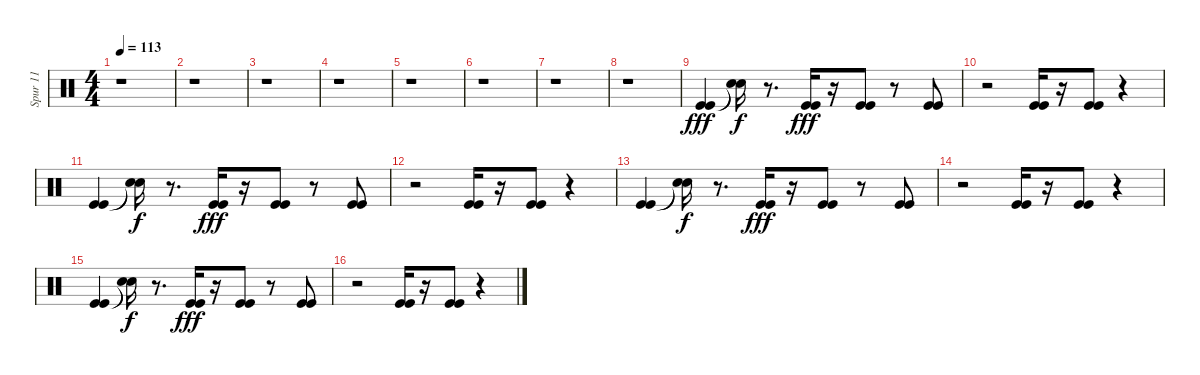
\track ("Spur 11" "Spur 11") {instrument percussion}
\staff {score}
\articulation defaults
\ts (4 4)
\tempo 113
\clef neutral
\ks c
r.1{dy fff} |
r.1 |
r.1 |
r.1 |
r.1 |
r.1 |
r.1 |
r.1 |
("Kick (hit)" "Kick (hit)").4{volume 12} ("Snare (hit)"{t} "Snare (hit)"{t}).16{dy f} r.8{d} ("Kick (hit)" "Kick (hit)").16{dy fff volume 12} r.16 ("Kick (hit)" "Kick (hit)").8 r.8 ("Kick (hit)" "Kick (hit)").8{volume 12} |
r.2 ("Kick (hit)" "Kick (hit)").16 r.16 ("Kick (hit)" "Kick (hit)").8 r.4 |
("Kick (hit)" "Kick (hit)").4 ("Snare (hit)"{t} "Snare (hit)"{t}).16{dy f} r.8{d} ("Kick (hit)" "Kick (hit)").16{dy fff} r.16 ("Kick (hit)" "Kick (hit)").8 r.8 ("Kick (hit)" "Kick (hit)").8 |
r.2 ("Kick (hit)" "Kick (hit)").16 r.16 ("Kick (hit)" "Kick (hit)").8 r.4 |
("Kick (hit)" "Kick (hit)").4 ("Snare (hit)"{t} "Snare (hit)"{t}).16{dy f} r.8{d} ("Kick (hit)" "Kick (hit)").16{dy fff} r.16 ("Kick (hit)" "Kick (hit)").8 r.8 ("Kick (hit)" "Kick (hit)").8 |
r.2 ("Kick (hit)" "Kick (hit)").16 r.16 ("Kick (hit)" "Kick (hit)").8 r.4 |
("Kick (hit)" "Kick (hit)").4 ("Snare (hit)"{t} "Snare (hit)"{t}).16{dy f} r.8{d} ("Kick (hit)" "Kick (hit)").16{dy fff balance 8} r.16 ("Kick (hit)" "Kick (hit)").8 r.8 ("Kick (hit)" "Kick (hit)").8 |
r.2 ("Kick (hit)" "Kick (hit)").16 r.16 ("Kick (hit)" "Kick (hit)").8 r.4
